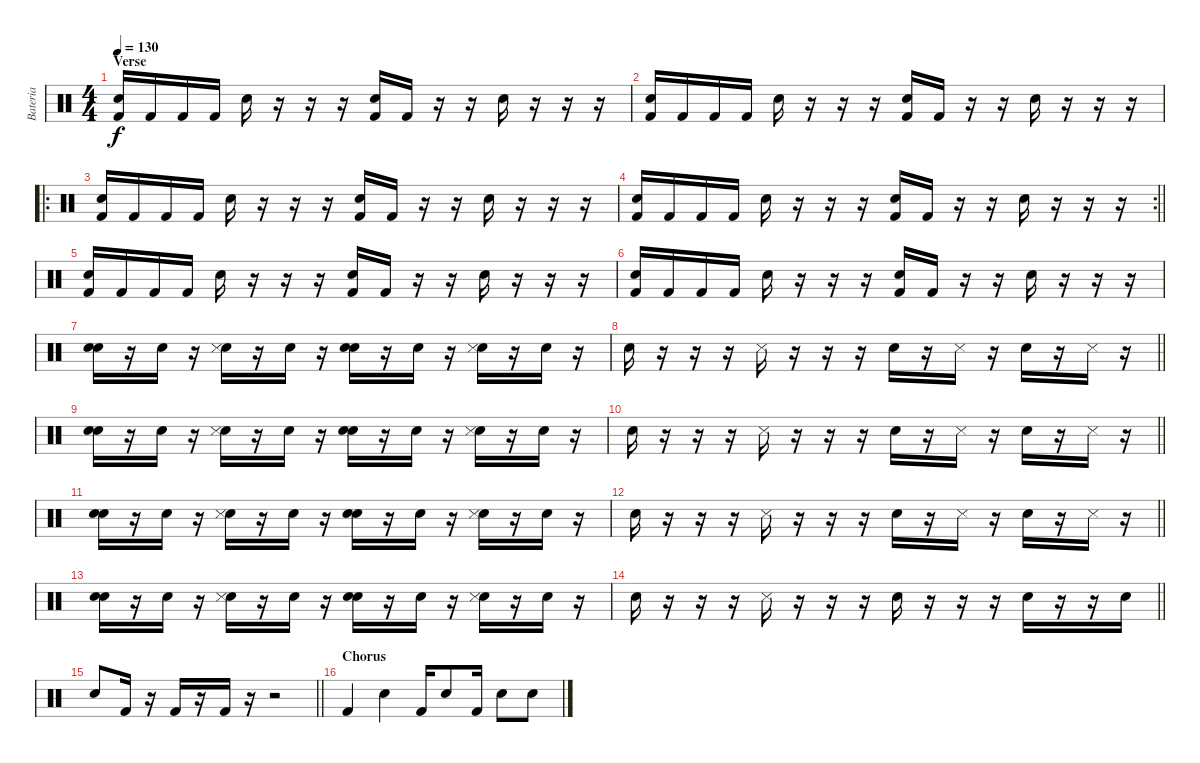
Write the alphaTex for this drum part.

\track ("Bateria" "Bateria") {instrument percussion}
\staff {score}
\articulation defaults
\ts (4 4)
\section ("" "Verse")
\tempo 130
\clef neutral
\ks c
("Snare (hit) 2" "Kick (hit) 2").16{dy f} "Kick (hit) 2".16 "Kick (hit) 2".16 "Kick (hit) 2".16 "Snare (hit) 2".16 r.16 r.16 r.16 ("Snare (hit) 2" "Kick (hit) 2").16 "Kick (hit) 2".16 r.16 r.16 "Snare (hit) 2".16 r.16 r.16 r.16 |
("Snare (hit) 2" "Kick (hit) 2").16 "Kick (hit) 2".16 "Kick (hit) 2".16 "Kick (hit) 2".16 "Snare (hit) 2".16 r.16 r.16 r.16 ("Snare (hit) 2" "Kick (hit) 2").16 "Kick (hit) 2".16 r.16 r.16 "Snare (hit) 2".16 r.16 r.16 r.16 |
\ro
("Snare (hit) 2" "Kick (hit) 2").16 "Kick (hit) 2".16 "Kick (hit) 2".16 "Kick (hit) 2".16 "Snare (hit) 2".16 r.16 r.16 r.16 ("Snare (hit) 2" "Kick (hit) 2").16 "Kick (hit) 2".16 r.16 r.16 "Snare (hit) 2".16 r.16 r.16 r.16 |
\rc 2
\barLineRight lightlight
("Snare (hit) 2" "Kick (hit) 2").16 "Kick (hit) 2".16 "Kick (hit) 2".16 "Kick (hit) 2".16 "Snare (hit) 2".16 r.16 r.16 r.16 ("Snare (hit) 2" "Kick (hit) 2").16 "Kick (hit) 2".16 r.16 r.16 "Snare (hit) 2".16 r.16 r.16 r.16 |
("Snare (hit) 2" "Kick (hit) 2").16 "Kick (hit) 2".16 "Kick (hit) 2".16 "Kick (hit) 2".16 "Snare (hit) 2".16 r.16 r.16 r.16 ("Snare (hit) 2" "Kick (hit) 2").16 "Kick (hit) 2".16 r.16 r.16 "Snare (hit) 2".16 r.16 r.16 r.16 |
("Snare (hit) 2" "Kick (hit) 2").16 "Kick (hit) 2".16 "Kick (hit) 2".16 "Kick (hit) 2".16 "Snare (hit) 2".16 r.16 r.16 r.16 ("Snare (hit) 2" "Kick (hit) 2").16 "Kick (hit) 2".16 r.16 r.16 "Snare (hit) 2".16 r.16 r.16 r.16 |
("Snare (hit) 2" "Snare (hit) 2").16 r.16 "Snare (hit) 2".16 r.16 ("Snare (hit) 2" "Snare (side stick) 3").16 r.16 "Snare (hit) 2".16 r.16 ("Snare (hit) 2" "Snare (hit) 2").16 r.16 "Snare (hit) 2".16 r.16 ("Snare (hit) 2" "Snare (side stick) 3").16 r.16 "Snare (hit) 2".16 r.16 |
\barLineRight lightlight "Snare (hit) 2".16
r.16 r.16 r.16 "Snare (side stick) 3".16 r.16 r.16 r.16 "Snare (hit) 2".16 r.16 "Snare (side stick) 3".16 r.16 "Snare (hit) 2".16 r.16 "Snare (side stick) 3".16 r.16 |
("Snare (hit) 2" "Snare (hit) 2").16 r.16 "Snare (hit) 2".16 r.16 ("Snare (hit) 2" "Snare (side stick) 3").16 r.16 "Snare (hit) 2".16 r.16 ("Snare (hit) 2" "Snare (hit) 2").16 r.16 "Snare (hit) 2".16 r.16 ("Snare (hit) 2" "Snare (side stick) 3").16 r.16 "Snare (hit) 2".16 r.16 |
\barLineRight lightlight "Snare (hit) 2".16
r.16 r.16 r.16 "Snare (side stick) 3".16 r.16 r.16 r.16 "Snare (hit) 2".16 r.16 "Snare (side stick) 3".16 r.16 "Snare (hit) 2".16 r.16 "Snare (side stick) 3".16 r.16 |
("Snare (hit) 2" "Snare (hit) 2").16 r.16 "Snare (hit) 2".16 r.16 ("Snare (hit) 2" "Snare (side stick) 3").16 r.16 "Snare (hit) 2".16 r.16 ("Snare (hit) 2" "Snare (hit) 2").16 r.16 "Snare (hit) 2".16 r.16 ("Snare (hit) 2" "Snare (side stick) 3").16 r.16 "Snare (hit) 2".16 r.16 |
\barLineRight lightlight "Snare (hit) 2".16
r.16 r.16 r.16 "Snare (side stick) 3".16 r.16 r.16 r.16 "Snare (hit) 2".16 r.16 "Snare (side stick) 3".16 r.16 "Snare (hit) 2".16 r.16 "Snare (side stick) 3".16 r.16 |
("Snare (hit) 2" "Snare (hit) 2").16 r.16 "Snare (hit) 2".16 r.16 ("Snare (hit) 2" "Snare (side stick) 3").16 r.16 "Snare (hit) 2".16 r.16 ("Snare (hit) 2" "Snare (hit) 2").16 r.16 "Snare (hit) 2".16 r.16 ("Snare (hit) 2" "Snare (side stick) 3").16 r.16 "Snare (hit) 2".16 r.16 |
\barLineRight lightlight "Snare (hit) 2".16
r.16 r.16 r.16 "Snare (side stick) 3".16 r.16 r.16 r.16 "Snare (hit) 2".16 r.16 r.16 r.16 "Snare (hit) 2".16 r.16 r.16 "Snare (hit) 2".16 |
\barLineRight lightlight "Snare (hit) 2".8 "Kick (hit) 2".16
r.16 "Kick (hit) 2".16 r.16 "Kick (hit) 2".16 r.16 r.2 |
\section ("" "Chorus")
"Kick (hit) 2".4 "Snare (hit) 2".4 "Kick (hit) 2".16 "Snare (hit) 2".8 "Kick (hit) 2".16 "Snare (hit) 2".8 "Snare (hit) 2".8
